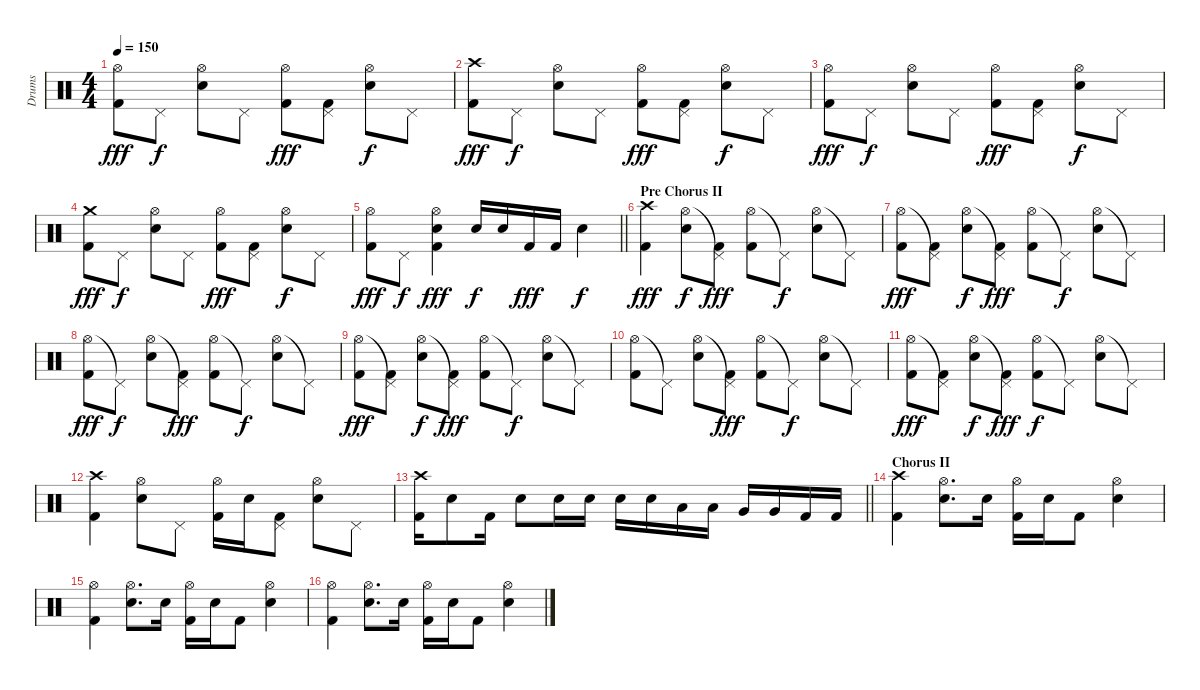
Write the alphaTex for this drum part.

\track ("Drums" "Drums") {instrument percussion}
\staff {score}
\articulation defaults
\ts (4 4)
\tempo 150
\clef neutral
\ks c
("Hi-Hat (open)" "Kick (hit) 2").8{dy fff} "Pedal Hi-Hat (hit)".8{dy f} ("Hi-Hat (open)" "Snare (hit) 2").8 "Pedal Hi-Hat (hit)".8 ("Hi-Hat (open)" "Kick (hit) 2").8{dy fff} ("Pedal Hi-Hat (hit)" "Kick (hit) 2").8 ("Hi-Hat (open)" "Snare (hit) 2").8{dy f} "Pedal Hi-Hat (hit)".8 |
("Crash high (hit)" "Kick (hit) 2").8{dy fff} "Pedal Hi-Hat (hit)".8{dy f} ("Hi-Hat (open)" "Snare (hit) 2").8 "Pedal Hi-Hat (hit)".8 ("Hi-Hat (open)" "Kick (hit) 2").8{dy fff} ("Pedal Hi-Hat (hit)" "Kick (hit) 2").8 ("Hi-Hat (open)" "Snare (hit) 2").8{dy f} "Pedal Hi-Hat (hit)".8 |
("Hi-Hat (open)" "Kick (hit) 2").8{dy fff} "Pedal Hi-Hat (hit)".8{dy f} ("Hi-Hat (open)" "Snare (hit) 2").8 "Pedal Hi-Hat (hit)".8 ("Hi-Hat (open)" "Kick (hit) 2").8{dy fff} ("Pedal Hi-Hat (hit)" "Kick (hit) 2").8 ("Hi-Hat (open)" "Snare (hit) 2").8{dy f} "Pedal Hi-Hat (hit)".8 |
("Crash medium (hit)" "Kick (hit) 2").8{dy fff} "Pedal Hi-Hat (hit)".8{dy f} ("Hi-Hat (open)" "Snare (hit) 2").8 "Pedal Hi-Hat (hit)".8 ("Hi-Hat (open)" "Kick (hit) 2").8{dy fff} ("Pedal Hi-Hat (hit)" "Kick (hit) 2").8 ("Hi-Hat (open)" "Snare (hit) 2").8{dy f} "Pedal Hi-Hat (hit)".8 |
\barLineRight lightlight
("Hi-Hat (open)" "Kick (hit) 2").8{dy fff} "Pedal Hi-Hat (hit)".8{dy f} ("Hi-Hat (open)" "Snare (hit) 2" "Kick (hit) 2").4{dy fff} "Snare (hit) 2".16{dy f} "Snare (hit) 2".16 "Kick (hit) 2".16{dy fff} "Kick (hit) 2".16 "Snare (hit) 2".4{dy f} |
\section ("" "Pre Chorus II")
("Crash high (hit)" "Kick (hit) 2").4{dy fff} ("Hi-Hat (open)" "Snare (hit) 2").8{dy f} ("Pedal Hi-Hat (hit)"{t} "Kick (hit) 2").8{dy fff} ("Hi-Hat (open)" "Kick (hit) 2").8 "Pedal Hi-Hat (hit)"{t}.8{dy f} ("Hi-Hat (open)" "Snare (hit) 2").8 "Pedal Hi-Hat (hit)"{t}.8 |
("Hi-Hat (open)" "Kick (hit) 2").8{dy fff} ("Pedal Hi-Hat (hit)"{t} "Kick (hit) 2").8 ("Hi-Hat (open)" "Snare (hit) 2").8{dy f} ("Pedal Hi-Hat (hit)"{t} "Kick (hit) 2").8{dy fff} ("Hi-Hat (open)" "Kick (hit) 2").8 "Pedal Hi-Hat (hit)"{t}.8{dy f} ("Hi-Hat (open)" "Snare (hit) 2").8 "Pedal Hi-Hat (hit)"{t}.8 |
("Hi-Hat (open)" "Kick (hit) 2").8{dy fff} "Pedal Hi-Hat (hit)"{t}.8{dy f} ("Hi-Hat (open)" "Snare (hit) 2").8 ("Pedal Hi-Hat (hit)"{t} "Kick (hit) 2").8{dy fff} ("Hi-Hat (open)" "Kick (hit) 2").8 "Pedal Hi-Hat (hit)"{t}.8{dy f} ("Hi-Hat (open)" "Snare (hit) 2").8 "Pedal Hi-Hat (hit)"{t}.8 |
("Hi-Hat (open)" "Kick (hit) 2").8{dy fff} ("Pedal Hi-Hat (hit)"{t} "Kick (hit) 2").8 ("Hi-Hat (open)" "Snare (hit) 2").8{dy f} ("Pedal Hi-Hat (hit)"{t} "Kick (hit) 2").8{dy fff} ("Hi-Hat (open)" "Kick (hit) 2").8 "Pedal Hi-Hat (hit)"{t}.8{dy f} ("Hi-Hat (open)" "Snare (hit) 2").8 "Pedal Hi-Hat (hit)"{t}.8 |
("Hi-Hat (open)" "Kick (hit) 2").8 "Pedal Hi-Hat (hit)"{t}.8 ("Hi-Hat (open)" "Snare (hit) 2").8 ("Pedal Hi-Hat (hit)"{t} "Kick (hit) 2").8{dy fff} ("Hi-Hat (open)" "Kick (hit) 2").8 "Pedal Hi-Hat (hit)"{t}.8{dy f} ("Hi-Hat (open)" "Snare (hit) 2").8 "Pedal Hi-Hat (hit)"{t}.8 |
("Hi-Hat (open)" "Kick (hit) 2").8{dy fff} ("Pedal Hi-Hat (hit)"{t} "Kick (hit) 2").8 ("Hi-Hat (open)" "Snare (hit) 2").8{dy f} ("Pedal Hi-Hat (hit)"{t} "Kick (hit) 2").8{dy fff} ("Hi-Hat (open)" "Kick (hit) 2").8{dy f} "Pedal Hi-Hat (hit)"{t}.8 ("Hi-Hat (open)" "Snare (hit) 2").8 "Pedal Hi-Hat (hit)"{t}.8 |
("Crash high (hit)" "Kick (hit) 2").4 ("Hi-Hat (open)" "Snare (hit) 2").8 "Pedal Hi-Hat (hit)".8 ("Hi-Hat (open)" "Kick (hit) 2").16 "Snare (hit) 2".16 ("Pedal Hi-Hat (hit)" "Kick (hit) 2").8 ("Hi-Hat (open)" "Snare (hit) 2").8 "Pedal Hi-Hat (hit)".8 |
\barLineRight lightlight
("Crash high (hit)" "Kick (hit) 2").16 "Snare (hit) 2".8 "Kick (hit) 2".16 "Snare (hit) 2".8 "Snare (hit) 2".16 "Snare (hit) 2".16 "Snare (hit) 2".16 "Snare (hit) 2".16 "Low Tom (hit)".16 "Low Tom (hit)".16 "Very Low Tom (hit)".16 "Very Low Tom (hit)".16 "Kick (hit) 2".16 "Kick (hit) 2".16 |
\section ("" "Chorus II")
("Crash high (hit)" "Kick (hit) 2").4 ("Hi-Hat (open)" "Snare (hit) 2").8{d} "Snare (hit) 2".16 ("Hi-Hat (open)" "Kick (hit) 2").16 "Snare (hit) 2".16 "Kick (hit) 2".8 ("Hi-Hat (open)" "Snare (hit) 2").4 |
("Hi-Hat (open)" "Kick (hit) 2").4 ("Hi-Hat (open)" "Snare (hit) 2").8{d} "Snare (hit) 2".16 ("Hi-Hat (open)" "Kick (hit) 2").16 "Snare (hit) 2".16 "Kick (hit) 2".8 ("Hi-Hat (open)" "Snare (hit) 2").4 |
("Hi-Hat (open)" "Kick (hit) 2").4 ("Hi-Hat (open)" "Snare (hit) 2").8{d} "Snare (hit) 2".16 ("Hi-Hat (open)" "Kick (hit) 2").16 "Snare (hit) 2".16 "Kick (hit) 2".8 ("Hi-Hat (open)" "Snare (hit) 2").4
